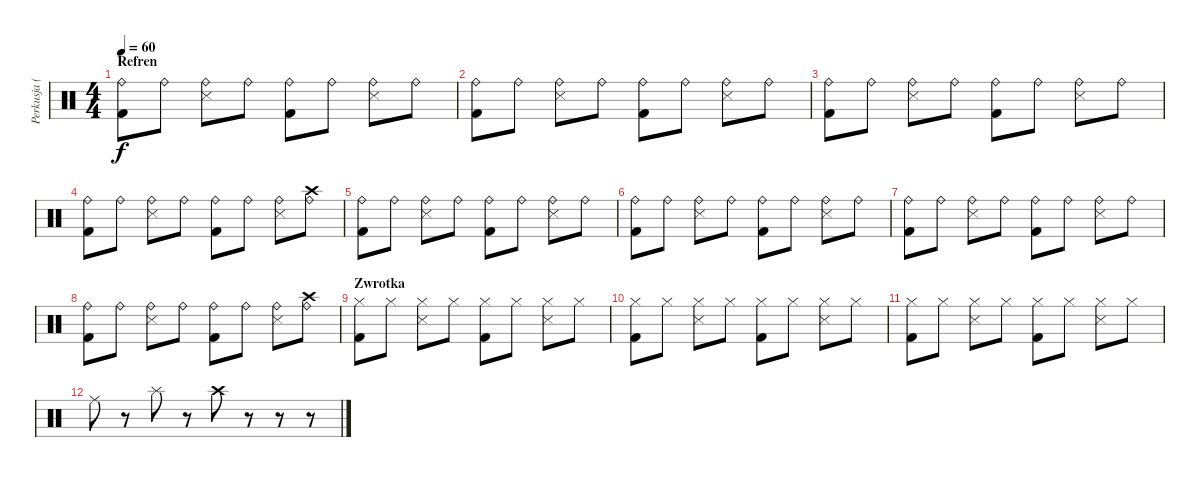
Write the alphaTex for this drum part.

\track ("Perkusja (Piejo)" "Perkusja (") {instrument percussion}
\staff {score}
\articulation defaults
\ts (4 4)
\section ("" "Refren")
\tempo 60
\clef neutral
\ks c
("Kick (hit) 2" "Ride (bell)").8{dy f} "Ride (bell)".8 ("Ride (bell)" "Snare (side stick) 3").8 "Ride (bell)".8 ("Ride (bell)" "Kick (hit) 2").8 "Ride (bell)".8 ("Ride (bell)" "Snare (side stick) 3").8 "Ride (bell)".8 |
("Kick (hit) 2" "Ride (bell)").8 "Ride (bell)".8 ("Ride (bell)" "Snare (side stick) 3").8 "Ride (bell)".8 ("Ride (bell)" "Kick (hit) 2").8 "Ride (bell)".8 ("Ride (bell)" "Snare (side stick) 3").8 "Ride (bell)".8 |
("Kick (hit) 2" "Ride (bell)").8 "Ride (bell)".8 ("Ride (bell)" "Snare (side stick) 3").8 "Ride (bell)".8 ("Ride (bell)" "Kick (hit) 2").8 "Ride (bell)".8 ("Ride (bell)" "Snare (side stick) 3").8 "Ride (bell)".8 |
("Kick (hit) 2" "Ride (bell)").8 "Ride (bell)".8 ("Ride (bell)" "Snare (side stick) 3").8 "Ride (bell)".8 ("Ride (bell)" "Kick (hit) 2").8 "Ride (bell)".8 ("Ride (bell)" "Snare (side stick) 3").8 ("Ride (bell)" "Crash high (hit)").8 |
("Kick (hit) 2" "Ride (bell)").8 "Ride (bell)".8 ("Ride (bell)" "Snare (side stick) 3").8 "Ride (bell)".8 ("Ride (bell)" "Kick (hit) 2").8 "Ride (bell)".8 ("Ride (bell)" "Snare (side stick) 3").8 "Ride (bell)".8 |
("Kick (hit) 2" "Ride (bell)").8 "Ride (bell)".8 ("Ride (bell)" "Snare (side stick) 3").8 "Ride (bell)".8 ("Ride (bell)" "Kick (hit) 2").8 "Ride (bell)".8 ("Ride (bell)" "Snare (side stick) 3").8 "Ride (bell)".8 |
("Kick (hit) 2" "Ride (bell)").8 "Ride (bell)".8 ("Ride (bell)" "Snare (side stick) 3").8 "Ride (bell)".8 ("Ride (bell)" "Kick (hit) 2").8 "Ride (bell)".8 ("Ride (bell)" "Snare (side stick) 3").8 "Ride (bell)".8 |
("Kick (hit) 2" "Ride (bell)").8 "Ride (bell)".8 ("Ride (bell)" "Snare (side stick) 3").8 "Ride (bell)".8 ("Ride (bell)" "Kick (hit) 2").8 "Ride (bell)".8 ("Ride (bell)" "Snare (side stick) 3").8 ("Ride (bell)" "Crash high (hit)").8 |
\section ("" "Zwrotka")
("Kick (hit) 2" "Hi-Hat (closed)").8 "Hi-Hat (closed)".8 ("Hi-Hat (closed)" "Snare (side stick) 3").8 "Hi-Hat (closed)".8 ("Hi-Hat (closed)" "Kick (hit) 2").8 "Hi-Hat (closed)".8 ("Hi-Hat (closed)" "Snare (side stick) 3").8 "Hi-Hat (closed)".8 |
("Kick (hit) 2" "Hi-Hat (closed)").8 "Hi-Hat (closed)".8 ("Hi-Hat (closed)" "Snare (side stick) 3").8 "Hi-Hat (closed)".8 ("Hi-Hat (closed)" "Kick (hit) 2").8 "Hi-Hat (closed)".8 ("Hi-Hat (closed)" "Snare (side stick) 3").8 "Hi-Hat (closed)".8 |
("Kick (hit) 2" "Hi-Hat (closed)").8 "Hi-Hat (closed)".8 ("Hi-Hat (closed)" "Snare (side stick) 3").8 "Hi-Hat (closed)".8 ("Hi-Hat (closed)" "Kick (hit) 2").8 "Hi-Hat (closed)".8 ("Hi-Hat (closed)" "Snare (side stick) 3").8 "Hi-Hat (closed)".8 |
"Ride (middle)".8 r.8 "Splash (hit)".8 r.8 "Crash high (hit)".8 r.8 r.8 r.8
